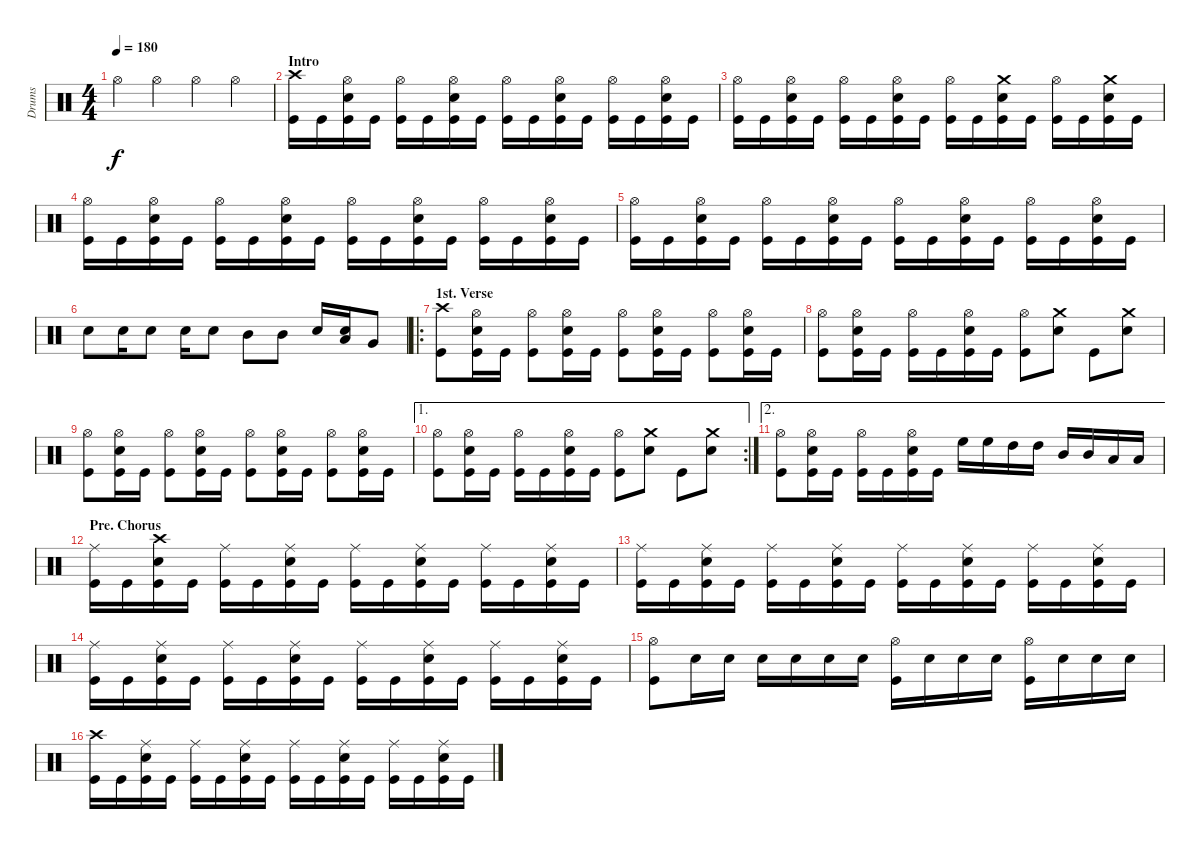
\track ("Drums" "Drums") {instrument percussion}
\staff {score}
\articulation defaults
\ts (4 4)
\tempo 180
\clef neutral
\ks c "Hi-Hat (open)".4{dy f} "Hi-Hat (open)".4 "Hi-Hat (open)".4 "Hi-Hat (open)".4
|
\section ("" "Intro")
("Crash high (hit)" "Kick (hit)").16 "Kick (hit)".16 ("Hi-Hat (open)" "Electric Snare (hit)" "Kick (hit)").16 "Kick (hit)".16 ("Hi-Hat (open)" "Kick (hit)").16 "Kick (hit)".16 ("Hi-Hat (open)" "Electric Snare (hit)" "Kick (hit)").16 "Kick (hit)".16 ("Hi-Hat (open)" "Kick (hit)").16 "Kick (hit)".16 ("Hi-Hat (open)" "Electric Snare (hit)" "Kick (hit)").16 "Kick (hit)".16 ("Hi-Hat (open)" "Kick (hit)").16 "Kick (hit)".16 ("Hi-Hat (open)" "Electric Snare (hit)" "Kick (hit)").16 "Kick (hit)".16 |
("Hi-Hat (open)" "Kick (hit)").16 "Kick (hit)".16 ("Hi-Hat (open)" "Electric Snare (hit)" "Kick (hit)").16 "Kick (hit)".16 ("Hi-Hat (open)" "Kick (hit)").16 "Kick (hit)".16 ("Hi-Hat (open)" "Electric Snare (hit)" "Kick (hit)").16 "Kick (hit)".16 ("Hi-Hat (open)" "Kick (hit)").16 "Kick (hit)".16 ("Crash medium (hit)" "Electric Snare (hit)" "Kick (hit)").16 "Kick (hit)".16 ("Hi-Hat (open)" "Kick (hit)").16 "Kick (hit)".16 ("Crash medium (hit)" "Electric Snare (hit)" "Kick (hit)").16 "Kick (hit)".16 |
("Hi-Hat (open)" "Kick (hit)").16 "Kick (hit)".16 ("Hi-Hat (open)" "Electric Snare (hit)" "Kick (hit)").16 "Kick (hit)".16 ("Hi-Hat (open)" "Kick (hit)").16 "Kick (hit)".16 ("Hi-Hat (open)" "Electric Snare (hit)" "Kick (hit)").16 "Kick (hit)".16 ("Hi-Hat (open)" "Kick (hit)").16 "Kick (hit)".16 ("Hi-Hat (open)" "Electric Snare (hit)" "Kick (hit)").16 "Kick (hit)".16 ("Hi-Hat (open)" "Kick (hit)").16 "Kick (hit)".16 ("Hi-Hat (open)" "Electric Snare (hit)" "Kick (hit)").16 "Kick (hit)".16 |
("Hi-Hat (open)" "Kick (hit)").16 "Kick (hit)".16 ("Hi-Hat (open)" "Electric Snare (hit)" "Kick (hit)").16 "Kick (hit)".16 ("Hi-Hat (open)" "Kick (hit)").16 "Kick (hit)".16 ("Hi-Hat (open)" "Electric Snare (hit)" "Kick (hit)").16 "Kick (hit)".16 ("Hi-Hat (open)" "Kick (hit)").16 "Kick (hit)".16 ("Hi-Hat (open)" "Electric Snare (hit)" "Kick (hit)").16 "Kick (hit)".16 ("Hi-Hat (open)" "Kick (hit)").16 "Kick (hit)".16 ("Hi-Hat (open)" "Electric Snare (hit)" "Kick (hit)").16 "Kick (hit)".16 |
"Electric Snare (hit)".8 "Electric Snare (hit)".16 "Electric Snare (hit)".8 "Electric Snare (hit)".16 "Electric Snare (hit)".8 "Mid Tom (hit)".8 "Mid Tom (hit)".8 "Electric Snare (hit)".16 ("Low Tom (hit)" "Electric Snare (hit)").16 "Very Low Tom (hit)".8 |
\ro
\section ("" "1st. Verse")
("Crash high (hit)" "Kick (hit)").8 ("Hi-Hat (open)" "Electric Snare (hit)" "Kick (hit)").16 "Kick (hit)".16 ("Hi-Hat (open)" "Kick (hit)").8 ("Hi-Hat (open)" "Electric Snare (hit)" "Kick (hit)").16 "Kick (hit)".16 ("Hi-Hat (open)" "Kick (hit)").8 ("Hi-Hat (open)" "Electric Snare (hit)" "Kick (hit)").16 "Kick (hit)".16 ("Hi-Hat (open)" "Kick (hit)").8 ("Hi-Hat (open)" "Electric Snare (hit)" "Kick (hit)").16 "Kick (hit)".16 |
("Hi-Hat (open)" "Kick (hit)").8 ("Hi-Hat (open)" "Electric Snare (hit)" "Kick (hit)").16 "Kick (hit)".16 ("Hi-Hat (open)" "Kick (hit)").16 "Kick (hit)".16 ("Hi-Hat (open)" "Electric Snare (hit)" "Kick (hit)").16 "Kick (hit)".16 ("Hi-Hat (open)" "Kick (hit)").8 ("Crash medium (hit)" "Electric Snare (hit)").8 "Kick (hit)".8 ("Crash medium (hit)" "Electric Snare (hit)").8 |
("Hi-Hat (open)" "Kick (hit)").8 ("Hi-Hat (open)" "Electric Snare (hit)" "Kick (hit)").16 "Kick (hit)".16 ("Hi-Hat (open)" "Kick (hit)").8 ("Hi-Hat (open)" "Electric Snare (hit)" "Kick (hit)").16 "Kick (hit)".16 ("Hi-Hat (open)" "Kick (hit)").8 ("Hi-Hat (open)" "Electric Snare (hit)" "Kick (hit)").16 "Kick (hit)".16 ("Hi-Hat (open)" "Kick (hit)").8 ("Hi-Hat (open)" "Electric Snare (hit)" "Kick (hit)").16 "Kick (hit)".16 |
\ae 1
\rc 2
("Hi-Hat (open)" "Kick (hit)").8 ("Hi-Hat (open)" "Electric Snare (hit)" "Kick (hit)").16 "Kick (hit)".16 ("Hi-Hat (open)" "Kick (hit)").16 "Kick (hit)".16 ("Hi-Hat (open)" "Electric Snare (hit)" "Kick (hit)").16 "Kick (hit)".16 ("Hi-Hat (open)" "Kick (hit)").8 ("Crash medium (hit)" "Electric Snare (hit)").8 "Kick (hit)".8 ("Crash medium (hit)" "Electric Snare (hit)").8 |
\ae 2
("Hi-Hat (open)" "Kick (hit)").8 ("Hi-Hat (open)" "Electric Snare (hit)" "Kick (hit)").16 "Kick (hit)".16 ("Hi-Hat (open)" "Kick (hit)").16 "Kick (hit)".16 ("Hi-Hat (open)" "Electric Snare (hit)" "Kick (hit)").16 "Kick (hit)".16 "High Floor Tom (hit)".16 "High Floor Tom (hit)".16 "High Tom (hit)".16 "High Tom (hit)".16 "Mid Tom (hit)".16 "Mid Tom (hit)".16 "Low Tom (hit)".16 "Low Tom (hit)".16 |
\section ("" "Pre. Chorus")
("Ride (middle)" "Kick (hit)").16 "Kick (hit)".16 ("Crash high (hit)" "Electric Snare (hit)" "Kick (hit)").16 "Kick (hit)".16 ("Ride (middle)" "Kick (hit)").16 "Kick (hit)".16 ("Ride (middle)" "Electric Snare (hit)" "Kick (hit)").16 "Kick (hit)".16 ("Ride (middle)" "Kick (hit)").16 "Kick (hit)".16 ("Ride (middle)" "Electric Snare (hit)" "Kick (hit)").16 "Kick (hit)".16 ("Ride (middle)" "Kick (hit)").16 "Kick (hit)".16 ("Ride (middle)" "Electric Snare (hit)" "Kick (hit)").16 "Kick (hit)".16 |
("Ride (middle)" "Kick (hit)").16 "Kick (hit)".16 ("Ride (middle)" "Electric Snare (hit)" "Kick (hit)").16 "Kick (hit)".16 ("Ride (middle)" "Kick (hit)").16 "Kick (hit)".16 ("Ride (middle)" "Electric Snare (hit)" "Kick (hit)").16 "Kick (hit)".16 ("Ride (middle)" "Kick (hit)").16 "Kick (hit)".16 ("Ride (middle)" "Electric Snare (hit)" "Kick (hit)").16 "Kick (hit)".16 ("Ride (middle)" "Kick (hit)").16 "Kick (hit)".16 ("Ride (middle)" "Electric Snare (hit)" "Kick (hit)").16 "Kick (hit)".16 |
("Ride (middle)" "Kick (hit)").16 "Kick (hit)".16 ("Ride (middle)" "Electric Snare (hit)" "Kick (hit)").16 "Kick (hit)".16 ("Ride (middle)" "Kick (hit)").16 "Kick (hit)".16 ("Ride (middle)" "Electric Snare (hit)" "Kick (hit)").16 "Kick (hit)".16 ("Ride (middle)" "Kick (hit)").16 "Kick (hit)".16 ("Ride (middle)" "Electric Snare (hit)" "Kick (hit)").16 "Kick (hit)".16 ("Ride (middle)" "Kick (hit)").16 "Kick (hit)".16 ("Ride (middle)" "Electric Snare (hit)" "Kick (hit)").16 "Kick (hit)".16 |
("Hi-Hat (open)" "Kick (hit)").8 "Electric Snare (hit)".16 "Electric Snare (hit)".16 "Electric Snare (hit)".16 "Electric Snare (hit)".16 "Electric Snare (hit)".16 "Electric Snare (hit)".16 ("Hi-Hat (open)" "Kick (hit)").16 "Electric Snare (hit)".16 "Electric Snare (hit)".16 "Electric Snare (hit)".16 ("Hi-Hat (open)" "Kick (hit)").16 "Electric Snare (hit)".16 "Electric Snare (hit)".16 "Electric Snare (hit)".16 |
("Crash high (hit)" "Kick (hit)").16 "Kick (hit)".16 ("Ride (middle)" "Electric Snare (hit)" "Kick (hit)").16 "Kick (hit)".16 ("Ride (middle)" "Kick (hit)").16 "Kick (hit)".16 ("Ride (middle)" "Electric Snare (hit)" "Kick (hit)").16 "Kick (hit)".16 ("Ride (middle)" "Kick (hit)").16 "Kick (hit)".16 ("Ride (middle)" "Electric Snare (hit)" "Kick (hit)").16 "Kick (hit)".16 ("Ride (middle)" "Kick (hit)").16 "Kick (hit)".16 ("Ride (middle)" "Electric Snare (hit)" "Kick (hit)").16 "Kick (hit)".16
